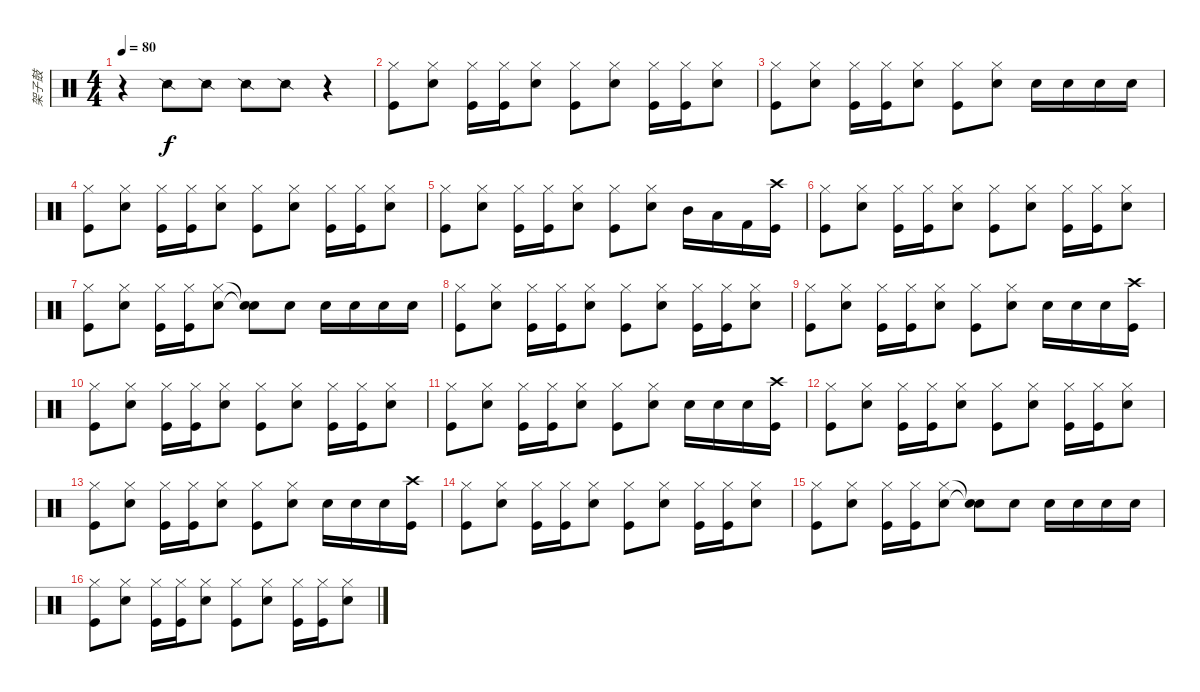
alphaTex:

\track ("架子鼓" "架子鼓") {instrument percussion}
\staff {score}
\articulation defaults
\ts (4 4)
\tempo 80
\clef neutral
\ks c
r.4{dy f} "Snare (side stick) 2".8 "Snare (side stick) 2".8 "Snare (side stick) 2".8 "Snare (side stick) 2".8 r.4 |
("Hi-Hat (closed)" "Kick (hit)").8 ("Hi-Hat (closed)" "Electric Snare (hit)").8 ("Hi-Hat (closed)" "Kick (hit)").16 ("Hi-Hat (closed)" "Kick (hit)").16 ("Hi-Hat (closed)" "Electric Snare (hit)").8 ("Hi-Hat (closed)" "Kick (hit)").8 ("Hi-Hat (closed)" "Electric Snare (hit)").8 ("Hi-Hat (closed)" "Kick (hit)").16 ("Hi-Hat (closed)" "Kick (hit)").16 ("Hi-Hat (closed)" "Electric Snare (hit)").8 |
("Hi-Hat (closed)" "Kick (hit)").8 ("Hi-Hat (closed)" "Electric Snare (hit)").8 ("Hi-Hat (closed)" "Kick (hit)").16 ("Hi-Hat (closed)" "Kick (hit)").16 ("Hi-Hat (closed)" "Electric Snare (hit)").8 ("Hi-Hat (closed)" "Kick (hit)").8 ("Hi-Hat (closed)" "Electric Snare (hit)").8 "Electric Snare (hit)".16 "Electric Snare (hit)".16 "Electric Snare (hit)".16 "Electric Snare (hit)".16 |
("Hi-Hat (closed)" "Kick (hit)").8 ("Hi-Hat (closed)" "Electric Snare (hit)").8 ("Hi-Hat (closed)" "Kick (hit)").16 ("Hi-Hat (closed)" "Kick (hit)").16 ("Hi-Hat (closed)" "Electric Snare (hit)").8 ("Hi-Hat (closed)" "Kick (hit)").8 ("Hi-Hat (closed)" "Electric Snare (hit)").8 ("Hi-Hat (closed)" "Kick (hit)").16 ("Hi-Hat (closed)" "Kick (hit)").16 ("Hi-Hat (closed)" "Electric Snare (hit)").8 |
("Hi-Hat (closed)" "Kick (hit)").8 ("Hi-Hat (closed)" "Electric Snare (hit)").8 ("Hi-Hat (closed)" "Kick (hit)").16 ("Hi-Hat (closed)" "Kick (hit)").16 ("Hi-Hat (closed)" "Electric Snare (hit)").8 ("Hi-Hat (closed)" "Kick (hit)").8 ("Hi-Hat (closed)" "Electric Snare (hit)").8 "Mid Tom (hit)".16 "Low Tom (hit)".16 "Kick (hit) 2".16 ("Crash high (hit)" "Kick (hit)").16 |
("Hi-Hat (closed)" "Kick (hit)").8 ("Hi-Hat (closed)" "Electric Snare (hit)").8 ("Hi-Hat (closed)" "Kick (hit)").16 ("Hi-Hat (closed)" "Kick (hit)").16 ("Hi-Hat (closed)" "Electric Snare (hit)").8 ("Hi-Hat (closed)" "Kick (hit)").8 ("Hi-Hat (closed)" "Electric Snare (hit)").8 ("Hi-Hat (closed)" "Kick (hit)").16 ("Hi-Hat (closed)" "Kick (hit)").16 ("Hi-Hat (closed)" "Electric Snare (hit)").8 |
("Hi-Hat (closed)" "Kick (hit)").8 ("Hi-Hat (closed)" "Electric Snare (hit)").8 ("Hi-Hat (closed)" "Kick (hit)").16 ("Hi-Hat (closed)" "Kick (hit)").16 ("Hi-Hat (closed)" "Electric Snare (hit)").8 ("Snare (hit)"{t} "Snare (hit)"{t}).8 "Electric Snare (hit)".8 "Electric Snare (hit)".16 "Electric Snare (hit)".16 "Electric Snare (hit)".16 "Electric Snare (hit)".16 |
("Hi-Hat (closed)" "Kick (hit)").8 ("Hi-Hat (closed)" "Electric Snare (hit)").8 ("Hi-Hat (closed)" "Kick (hit)").16 ("Hi-Hat (closed)" "Kick (hit)").16 ("Hi-Hat (closed)" "Electric Snare (hit)").8 ("Hi-Hat (closed)" "Kick (hit)").8 ("Hi-Hat (closed)" "Electric Snare (hit)").8 ("Hi-Hat (closed)" "Kick (hit)").16 ("Hi-Hat (closed)" "Kick (hit)").16 ("Hi-Hat (closed)" "Electric Snare (hit)").8 |
("Hi-Hat (closed)" "Kick (hit)").8 ("Hi-Hat (closed)" "Electric Snare (hit)").8 ("Hi-Hat (closed)" "Kick (hit)").16 ("Hi-Hat (closed)" "Kick (hit)").16 ("Hi-Hat (closed)" "Electric Snare (hit)").8 ("Hi-Hat (closed)" "Kick (hit)").8 ("Hi-Hat (closed)" "Electric Snare (hit)").8 "Electric Snare (hit)".16 "Electric Snare (hit)".16 "Electric Snare (hit)".16 ("Crash high (hit)" "Kick (hit)").16 |
("Hi-Hat (closed)" "Kick (hit)").8 ("Hi-Hat (closed)" "Electric Snare (hit)").8 ("Hi-Hat (closed)" "Kick (hit)").16 ("Hi-Hat (closed)" "Kick (hit)").16 ("Hi-Hat (closed)" "Electric Snare (hit)").8 ("Hi-Hat (closed)" "Kick (hit)").8 ("Hi-Hat (closed)" "Electric Snare (hit)").8 ("Hi-Hat (closed)" "Kick (hit)").16 ("Hi-Hat (closed)" "Kick (hit)").16 ("Hi-Hat (closed)" "Electric Snare (hit)").8 |
("Hi-Hat (closed)" "Kick (hit)").8 ("Hi-Hat (closed)" "Electric Snare (hit)").8 ("Hi-Hat (closed)" "Kick (hit)").16 ("Hi-Hat (closed)" "Kick (hit)").16 ("Hi-Hat (closed)" "Electric Snare (hit)").8 ("Hi-Hat (closed)" "Kick (hit)").8 ("Hi-Hat (closed)" "Electric Snare (hit)").8 "Electric Snare (hit)".16 "Electric Snare (hit)".16 "Electric Snare (hit)".16 ("Crash high (hit)" "Kick (hit)").16 |
("Hi-Hat (closed)" "Kick (hit)").8 ("Hi-Hat (closed)" "Electric Snare (hit)").8 ("Hi-Hat (closed)" "Kick (hit)").16 ("Hi-Hat (closed)" "Kick (hit)").16 ("Hi-Hat (closed)" "Electric Snare (hit)").8 ("Hi-Hat (closed)" "Kick (hit)").8 ("Hi-Hat (closed)" "Electric Snare (hit)").8 ("Hi-Hat (closed)" "Kick (hit)").16 ("Hi-Hat (closed)" "Kick (hit)").16 ("Hi-Hat (closed)" "Electric Snare (hit)").8 |
("Hi-Hat (closed)" "Kick (hit)").8 ("Hi-Hat (closed)" "Electric Snare (hit)").8 ("Hi-Hat (closed)" "Kick (hit)").16 ("Hi-Hat (closed)" "Kick (hit)").16 ("Hi-Hat (closed)" "Electric Snare (hit)").8 ("Hi-Hat (closed)" "Kick (hit)").8 ("Hi-Hat (closed)" "Electric Snare (hit)").8 "Electric Snare (hit)".16 "Electric Snare (hit)".16 "Electric Snare (hit)".16 ("Crash high (hit)" "Kick (hit)").16 |
("Hi-Hat (closed)" "Kick (hit)").8 ("Hi-Hat (closed)" "Electric Snare (hit)").8 ("Hi-Hat (closed)" "Kick (hit)").16 ("Hi-Hat (closed)" "Kick (hit)").16 ("Hi-Hat (closed)" "Electric Snare (hit)").8 ("Hi-Hat (closed)" "Kick (hit)").8 ("Hi-Hat (closed)" "Electric Snare (hit)").8 ("Hi-Hat (closed)" "Kick (hit)").16 ("Hi-Hat (closed)" "Kick (hit)").16 ("Hi-Hat (closed)" "Electric Snare (hit)").8 |
("Hi-Hat (closed)" "Kick (hit)").8 ("Hi-Hat (closed)" "Electric Snare (hit)").8 ("Hi-Hat (closed)" "Kick (hit)").16 ("Hi-Hat (closed)" "Kick (hit)").16 ("Hi-Hat (closed)" "Electric Snare (hit)").8 ("Snare (hit)"{t} "Snare (hit)"{t}).8 "Electric Snare (hit)".8 "Electric Snare (hit)".16 "Electric Snare (hit)".16 "Electric Snare (hit)".16 "Electric Snare (hit)".16 |
("Hi-Hat (closed)" "Kick (hit)").8 ("Hi-Hat (closed)" "Electric Snare (hit)").8 ("Hi-Hat (closed)" "Kick (hit)").16 ("Hi-Hat (closed)" "Kick (hit)").16 ("Hi-Hat (closed)" "Electric Snare (hit)").8 ("Hi-Hat (closed)" "Kick (hit)").8 ("Hi-Hat (closed)" "Electric Snare (hit)").8 ("Hi-Hat (closed)" "Kick (hit)").16 ("Hi-Hat (closed)" "Kick (hit)").16 ("Hi-Hat (closed)" "Electric Snare (hit)").8
